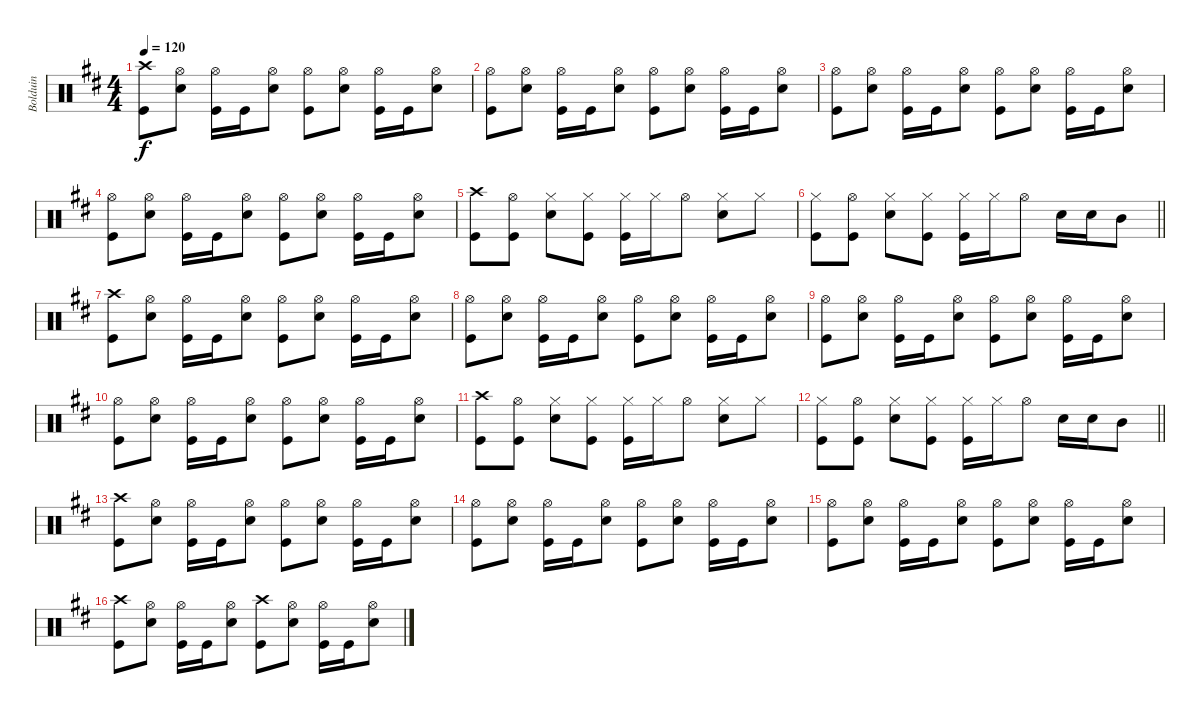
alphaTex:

\track ("Bolduin" "Bolduin") {instrument percussion}
\staff {score}
\articulation defaults
\ts (4 4)
\tempo 120
\clef neutral
\ks bminor
("Kick (hit)" "Crash high (hit)").8{dy f} ("Hi-Hat (open)" "Snare (hit) 2").8 ("Kick (hit)" "Hi-Hat (open)").16 "Kick (hit)".16 ("Snare (hit) 2" "Hi-Hat (open)").8 ("Kick (hit)" "Hi-Hat (open)").8 ("Hi-Hat (open)" "Snare (hit) 2").8 ("Kick (hit)" "Hi-Hat (open)").16 "Kick (hit)".16 ("Snare (hit) 2" "Hi-Hat (open)").8 |
("Kick (hit)" "Hi-Hat (open)").8 ("Hi-Hat (open)" "Snare (hit) 2").8 ("Kick (hit)" "Hi-Hat (open)").16 "Kick (hit)".16 ("Snare (hit) 2" "Hi-Hat (open)").8 ("Kick (hit)" "Hi-Hat (open)").8 ("Hi-Hat (open)" "Snare (hit) 2").8 ("Kick (hit)" "Hi-Hat (open)").16 "Kick (hit)".16 ("Snare (hit) 2" "Hi-Hat (open)").8 |
("Kick (hit)" "Hi-Hat (open)").8 ("Hi-Hat (open)" "Snare (hit) 2").8 ("Kick (hit)" "Hi-Hat (open)").16 "Kick (hit)".16 ("Snare (hit) 2" "Hi-Hat (open)").8 ("Kick (hit)" "Hi-Hat (open)").8 ("Hi-Hat (open)" "Snare (hit) 2").8 ("Kick (hit)" "Hi-Hat (open)").16 "Kick (hit)".16 ("Snare (hit) 2" "Hi-Hat (open)").8 |
("Kick (hit)" "Hi-Hat (open)").8 ("Hi-Hat (open)" "Snare (hit) 2").8 ("Kick (hit)" "Hi-Hat (open)").16 "Kick (hit)".16 ("Snare (hit) 2" "Hi-Hat (open)").8 ("Kick (hit)" "Hi-Hat (open)").8 ("Hi-Hat (open)" "Snare (hit) 2").8 ("Kick (hit)" "Hi-Hat (open)").16 "Kick (hit)".16 ("Snare (hit) 2" "Hi-Hat (open)").8 |
("Kick (hit)" "Crash high (hit)").8 ("Hi-Hat (open)" "Kick (hit)").8 ("Hi-Hat (closed)" "Snare (hit) 2").8 ("Hi-Hat (closed)" "Kick (hit)").8 ("Kick (hit)" "Hi-Hat (closed)").16 "Hi-Hat (closed)".16 "Hi-Hat (open)".8 ("Hi-Hat (closed)" "Snare (hit) 2").8 "Hi-Hat (closed)".8 |
\barLineRight lightlight
("Kick (hit)" "Hi-Hat (closed)").8 ("Hi-Hat (open)" "Kick (hit)").8 ("Hi-Hat (closed)" "Snare (hit) 2").8 ("Hi-Hat (closed)" "Kick (hit)").8 ("Kick (hit)" "Hi-Hat (closed)").16 "Hi-Hat (closed)".16 "Hi-Hat (open)".8 "Snare (hit) 2".16 "Snare (hit) 2".16 "Mid Tom (hit)".8 |
("Kick (hit)" "Crash high (hit)").8 ("Hi-Hat (open)" "Snare (hit) 2").8 ("Kick (hit)" "Hi-Hat (open)").16 "Kick (hit)".16 ("Snare (hit) 2" "Hi-Hat (open)").8 ("Kick (hit)" "Hi-Hat (open)").8 ("Hi-Hat (open)" "Snare (hit) 2").8 ("Kick (hit)" "Hi-Hat (open)").16 "Kick (hit)".16 ("Snare (hit) 2" "Hi-Hat (open)").8 |
("Kick (hit)" "Hi-Hat (open)").8 ("Hi-Hat (open)" "Snare (hit) 2").8 ("Kick (hit)" "Hi-Hat (open)").16 "Kick (hit)".16 ("Snare (hit) 2" "Hi-Hat (open)").8 ("Kick (hit)" "Hi-Hat (open)").8 ("Hi-Hat (open)" "Snare (hit) 2").8 ("Kick (hit)" "Hi-Hat (open)").16 "Kick (hit)".16 ("Snare (hit) 2" "Hi-Hat (open)").8 |
("Kick (hit)" "Hi-Hat (open)").8 ("Hi-Hat (open)" "Snare (hit) 2").8 ("Kick (hit)" "Hi-Hat (open)").16 "Kick (hit)".16 ("Snare (hit) 2" "Hi-Hat (open)").8 ("Kick (hit)" "Hi-Hat (open)").8 ("Hi-Hat (open)" "Snare (hit) 2").8 ("Kick (hit)" "Hi-Hat (open)").16 "Kick (hit)".16 ("Snare (hit) 2" "Hi-Hat (open)").8 |
("Kick (hit)" "Hi-Hat (open)").8 ("Hi-Hat (open)" "Snare (hit) 2").8 ("Kick (hit)" "Hi-Hat (open)").16 "Kick (hit)".16 ("Snare (hit) 2" "Hi-Hat (open)").8 ("Kick (hit)" "Hi-Hat (open)").8 ("Hi-Hat (open)" "Snare (hit) 2").8 ("Kick (hit)" "Hi-Hat (open)").16 "Kick (hit)".16 ("Snare (hit) 2" "Hi-Hat (open)").8 |
("Kick (hit)" "Crash high (hit)").8 ("Hi-Hat (open)" "Kick (hit)").8 ("Hi-Hat (closed)" "Snare (hit) 2").8 ("Hi-Hat (closed)" "Kick (hit)").8 ("Kick (hit)" "Hi-Hat (closed)").16 "Hi-Hat (closed)".16 "Hi-Hat (open)".8 ("Hi-Hat (closed)" "Snare (hit) 2").8 "Hi-Hat (closed)".8 |
\barLineRight lightlight
("Kick (hit)" "Hi-Hat (closed)").8 ("Hi-Hat (open)" "Kick (hit)").8 ("Hi-Hat (closed)" "Snare (hit) 2").8 ("Hi-Hat (closed)" "Kick (hit)").8 ("Kick (hit)" "Hi-Hat (closed)").16 "Hi-Hat (closed)".16 "Hi-Hat (open)".8 "Snare (hit) 2".16 "Snare (hit) 2".16 "Mid Tom (hit)".8 |
("Kick (hit)" "Crash high (hit)").8 ("Hi-Hat (open)" "Snare (hit) 2").8 ("Kick (hit)" "Hi-Hat (open)").16 "Kick (hit)".16 ("Snare (hit) 2" "Hi-Hat (open)").8 ("Kick (hit)" "Hi-Hat (open)").8 ("Hi-Hat (open)" "Snare (hit) 2").8 ("Kick (hit)" "Hi-Hat (open)").16 "Kick (hit)".16 ("Snare (hit) 2" "Hi-Hat (open)").8 |
("Kick (hit)" "Hi-Hat (open)").8 ("Hi-Hat (open)" "Snare (hit) 2").8 ("Kick (hit)" "Hi-Hat (open)").16 "Kick (hit)".16 ("Snare (hit) 2" "Hi-Hat (open)").8 ("Kick (hit)" "Hi-Hat (open)").8 ("Hi-Hat (open)" "Snare (hit) 2").8 ("Kick (hit)" "Hi-Hat (open)").16 "Kick (hit)".16 ("Snare (hit) 2" "Hi-Hat (open)").8 |
("Kick (hit)" "Hi-Hat (open)").8 ("Hi-Hat (open)" "Snare (hit) 2").8 ("Kick (hit)" "Hi-Hat (open)").16 "Kick (hit)".16 ("Snare (hit) 2" "Hi-Hat (open)").8 ("Kick (hit)" "Hi-Hat (open)").8 ("Hi-Hat (open)" "Snare (hit) 2").8 ("Kick (hit)" "Hi-Hat (open)").16 "Kick (hit)".16 ("Snare (hit) 2" "Hi-Hat (open)").8 |
("Kick (hit)" "Crash high (hit)").8 ("Hi-Hat (open)" "Snare (hit) 2").8 ("Kick (hit)" "Hi-Hat (open)").16 "Kick (hit)".16 ("Snare (hit) 2" "Hi-Hat (open)").8 ("Kick (hit)" "Crash high (hit)").8 ("Hi-Hat (open)" "Snare (hit) 2").8 ("Kick (hit)" "Hi-Hat (open)").16 "Kick (hit)".16 ("Snare (hit) 2" "Hi-Hat (open)").8
